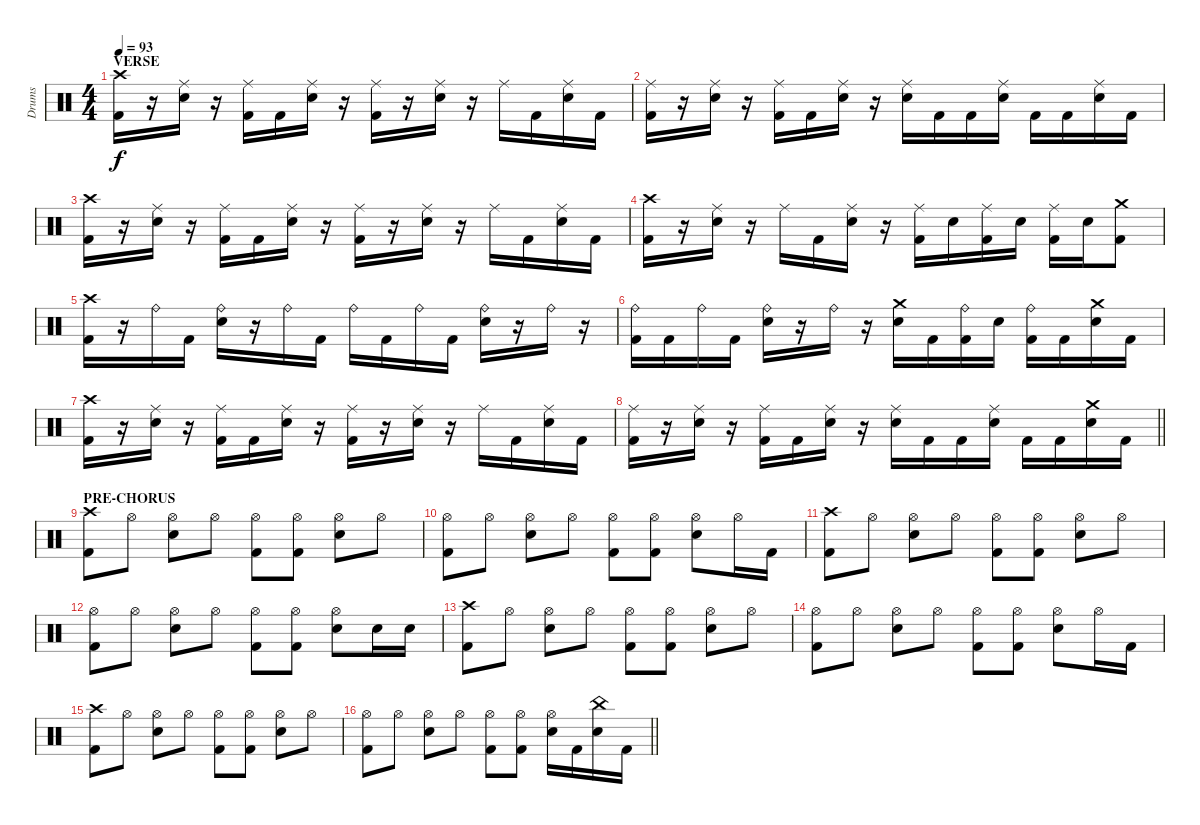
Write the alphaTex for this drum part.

\track ("Drums" "Drums") {instrument percussion}
\staff
\articulation defaults
\ts (4 4)
\section ("" "VERSE")
\tempo 93
\clef neutral
\ks c
("Crash high (hit)" "Kick (hit) 2").16{dy f} r.16 ("Ride (middle)" "Snare (hit) 2").16 r.16 ("Ride (middle)" "Kick (hit) 2").16 "Kick (hit) 2".16 ("Ride (middle)" "Snare (hit) 2").16 r.16 ("Ride (middle)" "Kick (hit) 2").16 r.16 ("Ride (middle)" "Snare (hit) 2").16 r.16 "Ride (middle)".16 "Kick (hit) 2".16 ("Ride (middle)" "Snare (hit) 2").16 "Kick (hit) 2".16 |
("Ride (middle)" "Kick (hit) 2").16 r.16 ("Ride (middle)" "Snare (hit) 2").16 r.16 ("Ride (middle)" "Kick (hit) 2").16 "Kick (hit) 2".16 ("Ride (middle)" "Snare (hit) 2").16 r.16 ("Ride (middle)" "Snare (hit) 2").16 "Kick (hit) 2".16 "Kick (hit) 2".16 ("Ride (middle)" "Snare (hit) 2").16 "Kick (hit) 2".16 "Kick (hit) 2".16 ("Ride (middle)" "Snare (hit) 2").16 "Kick (hit) 2".16 |
("Crash high (hit)" "Kick (hit) 2").16 r.16 ("Ride (middle)" "Snare (hit) 2").16 r.16 ("Ride (middle)" "Kick (hit) 2").16 "Kick (hit) 2".16 ("Ride (middle)" "Snare (hit) 2").16 r.16 ("Ride (middle)" "Kick (hit) 2").16 r.16 ("Ride (middle)" "Snare (hit) 2").16 r.16 "Ride (middle)".16 "Kick (hit) 2".16 ("Ride (middle)" "Snare (hit) 2").16 "Kick (hit) 2".16 |
("Crash high (hit)" "Kick (hit) 2").16 r.16 ("Ride (middle)" "Snare (hit) 2").16 r.16 "Ride (middle)".16 "Kick (hit) 2".16 ("Ride (middle)" "Snare (hit) 2").16 r.16 ("Ride (middle)" "Kick (hit) 2").16 "Snare (hit) 2".16 ("Ride (middle)" "Kick (hit) 2").16 "Snare (hit) 2".16 ("Ride (middle)" "Kick (hit) 2").16 "Snare (hit) 2".16 ("Crash medium (hit)" "Kick (hit) 2").8 |
("Crash high (hit)" "Kick (hit) 2").16 r.16 "Ride (bell)".16 "Kick (hit) 2".16 ("Ride (bell)" "Snare (hit) 2").16 r.16 "Ride (bell)".16 "Kick (hit) 2".16 "Ride (bell)".16 "Kick (hit) 2".16 "Ride (bell)".16 "Kick (hit) 2".16 ("Ride (bell)" "Snare (hit) 2").16 r.16 "Ride (bell)".16 r.16 |
("Ride (bell)" "Kick (hit) 2").16 "Kick (hit) 2".16 "Ride (bell)".16 "Kick (hit) 2".16 ("Ride (bell)" "Snare (hit) 2").16 r.16 "Ride (bell)".16 r.16 ("Crash medium (hit)" "Snare (hit) 2").16 "Kick (hit) 2".16 ("Ride (bell)" "Kick (hit) 2").16 "Snare (hit) 2".16 ("Ride (bell)" "Kick (hit) 2").16 "Kick (hit) 2".16 ("Crash medium (hit)" "Snare (hit) 2").16 "Kick (hit) 2".16 |
("Crash high (hit)" "Kick (hit) 2").16 r.16 ("Ride (middle)" "Snare (hit) 2").16 r.16 ("Ride (middle)" "Kick (hit) 2").16 "Kick (hit) 2".16 ("Ride (middle)" "Snare (hit) 2").16 r.16 ("Ride (middle)" "Kick (hit) 2").16 r.16 ("Ride (middle)" "Snare (hit) 2").16 r.16 "Ride (middle)".16 "Kick (hit) 2".16 ("Ride (middle)" "Snare (hit) 2").16 "Kick (hit) 2".16 |
\barLineRight lightlight
("Ride (middle)" "Kick (hit) 2").16 r.16 ("Ride (middle)" "Snare (hit) 2").16 r.16 ("Ride (middle)" "Kick (hit) 2").16 "Kick (hit) 2".16 ("Ride (middle)" "Snare (hit) 2").16 r.16 ("Ride (middle)" "Snare (hit) 2").16 "Kick (hit) 2".16 "Kick (hit) 2".16 ("Ride (middle)" "Snare (hit) 2").16 "Kick (hit) 2".16 "Kick (hit) 2".16 ("Crash medium (hit)" "Snare (hit) 2").16 "Kick (hit) 2".16 |
\section ("" "PRE-CHORUS")
("Crash high (hit)" "Kick (hit) 2").8 "Hi-Hat (open)".8 ("Hi-Hat (open)" "Snare (hit) 2").8 "Hi-Hat (open)".8 ("Hi-Hat (open)" "Kick (hit) 2").8 ("Hi-Hat (open)" "Kick (hit) 2").8 ("Hi-Hat (open)" "Snare (hit) 2").8 "Hi-Hat (open)".8 |
("Hi-Hat (open)" "Kick (hit) 2").8 "Hi-Hat (open)".8 ("Hi-Hat (open)" "Snare (hit) 2").8 "Hi-Hat (open)".8 ("Hi-Hat (open)" "Kick (hit) 2").8 ("Hi-Hat (open)" "Kick (hit) 2").8 ("Hi-Hat (open)" "Snare (hit) 2").8 "Hi-Hat (open)".16 "Kick (hit) 2".16 |
("Crash high (hit)" "Kick (hit) 2").8 "Hi-Hat (open)".8 ("Hi-Hat (open)" "Snare (hit) 2").8 "Hi-Hat (open)".8 ("Hi-Hat (open)" "Kick (hit) 2").8 ("Hi-Hat (open)" "Kick (hit) 2").8 ("Hi-Hat (open)" "Snare (hit) 2").8 "Hi-Hat (open)".8 |
("Hi-Hat (open)" "Kick (hit) 2").8 "Hi-Hat (open)".8 ("Hi-Hat (open)" "Snare (hit) 2").8 "Hi-Hat (open)".8 ("Hi-Hat (open)" "Kick (hit) 2").8 ("Hi-Hat (open)" "Kick (hit) 2").8 ("Hi-Hat (open)" "Snare (hit) 2").8 "Snare (hit) 2".16 "Snare (hit) 2".16 |
("Crash high (hit)" "Kick (hit) 2").8 "Hi-Hat (open)".8 ("Hi-Hat (open)" "Snare (hit) 2").8 "Hi-Hat (open)".8 ("Hi-Hat (open)" "Kick (hit) 2").8 ("Hi-Hat (open)" "Kick (hit) 2").8 ("Hi-Hat (open)" "Snare (hit) 2").8 "Hi-Hat (open)".8 |
("Hi-Hat (open)" "Kick (hit) 2").8 "Hi-Hat (open)".8 ("Hi-Hat (open)" "Snare (hit) 2").8 "Hi-Hat (open)".8 ("Hi-Hat (open)" "Kick (hit) 2").8 ("Hi-Hat (open)" "Kick (hit) 2").8 ("Hi-Hat (open)" "Snare (hit) 2").8 "Hi-Hat (open)".16 "Kick (hit) 2".16 |
("Crash high (hit)" "Kick (hit) 2").8 "Hi-Hat (open)".8 ("Hi-Hat (open)" "Snare (hit) 2").8 "Hi-Hat (open)".8 ("Hi-Hat (open)" "Kick (hit) 2").8 ("Hi-Hat (open)" "Kick (hit) 2").8 ("Hi-Hat (open)" "Snare (hit) 2").8 "Hi-Hat (open)".8 |
\barLineRight lightlight
("Hi-Hat (open)" "Kick (hit) 2").8 "Hi-Hat (open)".8 ("Hi-Hat (open)" "Snare (hit) 2").8 "Hi-Hat (open)".8 ("Hi-Hat (open)" "Kick (hit) 2").8 ("Hi-Hat (open)" "Kick (hit) 2").8 ("Hi-Hat (open)" "Snare (hit) 2").16 "Kick (hit) 2".16 ("China (hit)" "Snare (hit) 2").16 "Kick (hit) 2".16
